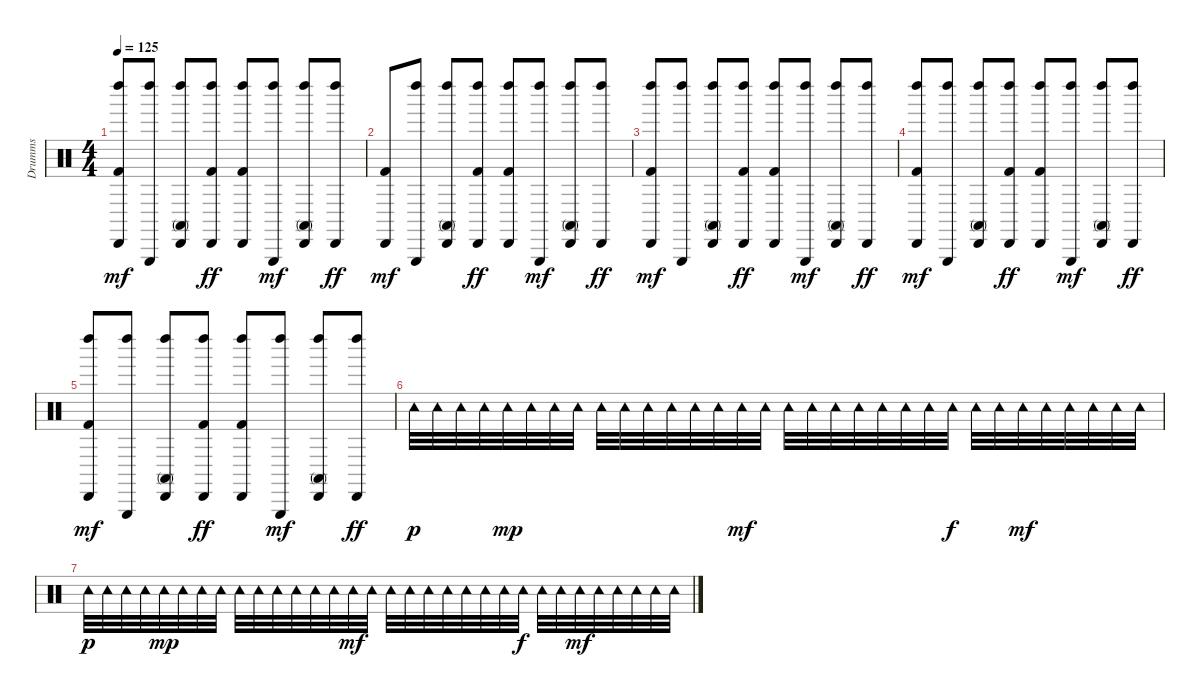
\track ("Drumms" "Drumms") {instrument percussion}
\staff {score}
\articulation defaults
\ts (4 4)
\tempo 125
\clef neutral
\ks c
("Kick (hit) 2" "Cabasa (hit)" "Left Maraca (hit)").8{dy mf} ("Left Maraca (hit)" "Triangle (hit)").8 ("Conga high (mute)" "Cabasa (hit)" "Left Maraca (hit)").8 ("Kick (hit) 2" "Cabasa (hit)" "Left Maraca (hit)").8{dy ff} ("Kick (hit) 2" "Cabasa (hit)" "Left Maraca (hit)").8 ("Left Maraca (hit)" "Triangle (hit)").8{dy mf} ("Conga high (mute)" "Cabasa (hit)" "Left Maraca (hit)").8 ("Cabasa (hit)" "Left Maraca (hit)").8{dy ff} |
("Kick (hit) 2" "Cabasa (hit)").8{dy mf} ("Left Maraca (hit)" "Triangle (hit)").8 ("Conga high (mute)" "Cabasa (hit)" "Left Maraca (hit)").8 ("Kick (hit) 2" "Cabasa (hit)" "Left Maraca (hit)").8{dy ff} ("Kick (hit) 2" "Cabasa (hit)" "Left Maraca (hit)").8 ("Left Maraca (hit)" "Triangle (hit)").8{dy mf} ("Conga high (mute)" "Cabasa (hit)" "Left Maraca (hit)").8 ("Cabasa (hit)" "Left Maraca (hit)").8{dy ff} |
("Kick (hit) 2" "Cabasa (hit)" "Left Maraca (hit)").8{dy mf} ("Left Maraca (hit)" "Triangle (hit)").8 ("Conga high (mute)" "Cabasa (hit)" "Left Maraca (hit)").8 ("Kick (hit) 2" "Cabasa (hit)" "Left Maraca (hit)").8{dy ff} ("Kick (hit) 2" "Cabasa (hit)" "Left Maraca (hit)").8 ("Left Maraca (hit)" "Triangle (hit)").8{dy mf} ("Conga high (mute)" "Cabasa (hit)" "Left Maraca (hit)").8 ("Cabasa (hit)" "Left Maraca (hit)").8{dy ff} |
("Kick (hit) 2" "Cabasa (hit)" "Left Maraca (hit)").8{dy mf} ("Left Maraca (hit)" "Triangle (hit)").8 ("Conga high (mute)" "Cabasa (hit)" "Left Maraca (hit)").8 ("Kick (hit) 2" "Cabasa (hit)" "Left Maraca (hit)").8{dy ff} ("Kick (hit) 2" "Cabasa (hit)" "Left Maraca (hit)").8 ("Left Maraca (hit)" "Triangle (hit)").8{dy mf} ("Conga high (mute)" "Cabasa (hit)" "Left Maraca (hit)").8 ("Cabasa (hit)" "Left Maraca (hit)").8{dy ff} |
("Kick (hit) 2" "Cabasa (hit)" "Left Maraca (hit)").8{dy mf} ("Left Maraca (hit)" "Triangle (hit)").8 ("Conga high (mute)" "Cabasa (hit)" "Left Maraca (hit)").8 ("Kick (hit) 2" "Cabasa (hit)" "Left Maraca (hit)").8{dy ff} ("Kick (hit) 2" "Cabasa (hit)" "Left Maraca (hit)").8 ("Left Maraca (hit)" "Triangle (hit)").8{dy mf} ("Conga high (mute)" "Cabasa (hit)" "Left Maraca (hit)").8 ("Cabasa (hit)" "Left Maraca (hit)").8{dy ff} |
"Tambourine (hit)".32{dy p} "Tambourine (hit)".32 "Tambourine (hit)".32 "Tambourine (hit)".32 "Tambourine (hit)".32{dy mp} "Tambourine (hit)".32 "Tambourine (hit)".32 "Tambourine (hit)".32 "Tambourine (hit)".32{volume 12} "Tambourine (hit)".32 "Tambourine (hit)".32 "Tambourine (hit)".32 "Tambourine (hit)".32 "Tambourine (hit)".32 "Tambourine (hit)".32{dy mf} "Tambourine (hit)".32 "Tambourine (hit)".32{volume 11} "Tambourine (hit)".32 "Tambourine (hit)".32 "Tambourine (hit)".32 "Tambourine (hit)".32 "Tambourine (hit)".32 "Tambourine (hit)".32 "Tambourine (hit)".32{dy f} "Tambourine (hit)".32{volume 10} "Tambourine (hit)".32 "Tambourine (hit)".32{dy mf} "Tambourine (hit)".32 "Tambourine (hit)".32 "Tambourine (hit)".32 "Tambourine (hit)".32 "Tambourine (hit)".32 |
"Tambourine (hit)".32{dy p volume 9} "Tambourine (hit)".32 "Tambourine (hit)".32 "Tambourine (hit)".32 "Tambourine (hit)".32{dy mp} "Tambourine (hit)".32 "Tambourine (hit)".32 "Tambourine (hit)".32 "Tambourine (hit)".32{volume 8} "Tambourine (hit)".32 "Tambourine (hit)".32 "Tambourine (hit)".32 "Tambourine (hit)".32 "Tambourine (hit)".32 "Tambourine (hit)".32{dy mf} "Tambourine (hit)".32 "Tambourine (hit)".32{volume 7} "Tambourine (hit)".32 "Tambourine (hit)".32 "Tambourine (hit)".32 "Tambourine (hit)".32 "Tambourine (hit)".32 "Tambourine (hit)".32 "Tambourine (hit)".32{dy f} "Tambourine (hit)".32{volume 5} "Tambourine (hit)".32 "Tambourine (hit)".32{dy mf} "Tambourine (hit)".32 "Tambourine (hit)".32 "Tambourine (hit)".32 "Tambourine (hit)".32 "Tambourine (hit)".32
